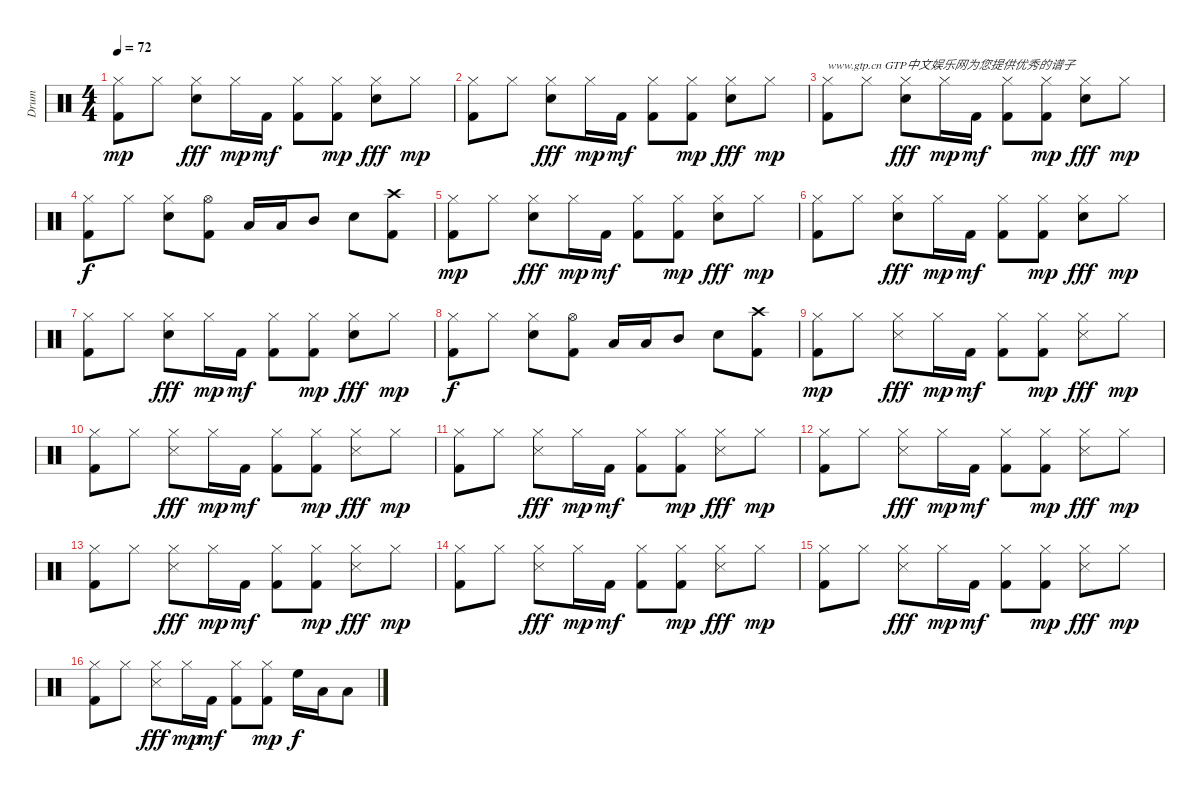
\track ("Drum" "Drum") {instrument percussion}
\staff {score}
\articulation defaults
\ts (4 4)
\tempo 72
\clef neutral
\ks c
("Hi-Hat (closed)" "Kick (hit) 2").8{dy mp} "Hi-Hat (closed)".8 ("Hi-Hat (closed)" "Snare (hit) 2").8{dy fff} "Hi-Hat (closed)".16{dy mp} "Kick (hit) 2".16{dy mf} ("Hi-Hat (closed)" "Kick (hit) 2").8 ("Hi-Hat (closed)" "Kick (hit) 2").8{dy mp} ("Hi-Hat (closed)" "Snare (hit) 2").8{dy fff} "Hi-Hat (closed)".8{dy mp} |
("Hi-Hat (closed)" "Kick (hit) 2").8 "Hi-Hat (closed)".8 ("Hi-Hat (closed)" "Snare (hit) 2").8{dy fff} "Hi-Hat (closed)".16{dy mp} "Kick (hit) 2".16{dy mf} ("Hi-Hat (closed)" "Kick (hit) 2").8 ("Hi-Hat (closed)" "Kick (hit) 2").8{dy mp} ("Hi-Hat (closed)" "Snare (hit) 2").8{dy fff} "Hi-Hat (closed)".8{dy mp} |
("Hi-Hat (closed)" "Kick (hit) 2").8{txt "www.gtp.cn GTP中文娱乐网为您提供优秀的谱子"} "Hi-Hat (closed)".8 ("Hi-Hat (closed)" "Snare (hit) 2").8{dy fff} "Hi-Hat (closed)".16{dy mp} "Kick (hit) 2".16{dy mf} ("Hi-Hat (closed)" "Kick (hit) 2").8 ("Hi-Hat (closed)" "Kick (hit) 2").8{dy mp} ("Hi-Hat (closed)" "Snare (hit) 2").8{dy fff} "Hi-Hat (closed)".8{dy mp} |
("Hi-Hat (closed)" "Kick (hit) 2").8{dy f} "Hi-Hat (closed)".8 ("Hi-Hat (closed)" "Snare (hit) 2").8 ("Hi-Hat (open)" "Kick (hit) 2").8 "Low Tom (hit)".16 "Low Tom (hit)".16 "Mid Tom (hit)".8 "Snare (hit) 2".8 ("Crash high (hit)" "Kick (hit) 2").8 |
("Hi-Hat (closed)" "Kick (hit) 2").8{dy mp} "Hi-Hat (closed)".8 ("Hi-Hat (closed)" "Snare (hit) 2").8{dy fff} "Hi-Hat (closed)".16{dy mp} "Kick (hit) 2".16{dy mf} ("Hi-Hat (closed)" "Kick (hit) 2").8 ("Hi-Hat (closed)" "Kick (hit) 2").8{dy mp} ("Hi-Hat (closed)" "Snare (hit) 2").8{dy fff} "Hi-Hat (closed)".8{dy mp} |
("Hi-Hat (closed)" "Kick (hit) 2").8 "Hi-Hat (closed)".8 ("Hi-Hat (closed)" "Snare (hit) 2").8{dy fff} "Hi-Hat (closed)".16{dy mp} "Kick (hit) 2".16{dy mf} ("Hi-Hat (closed)" "Kick (hit) 2").8 ("Hi-Hat (closed)" "Kick (hit) 2").8{dy mp} ("Hi-Hat (closed)" "Snare (hit) 2").8{dy fff} "Hi-Hat (closed)".8{dy mp} |
("Hi-Hat (closed)" "Kick (hit) 2").8 "Hi-Hat (closed)".8 ("Hi-Hat (closed)" "Snare (hit) 2").8{dy fff} "Hi-Hat (closed)".16{dy mp} "Kick (hit) 2".16{dy mf} ("Hi-Hat (closed)" "Kick (hit) 2").8 ("Hi-Hat (closed)" "Kick (hit) 2").8{dy mp} ("Hi-Hat (closed)" "Snare (hit) 2").8{dy fff} "Hi-Hat (closed)".8{dy mp} |
("Hi-Hat (closed)" "Kick (hit) 2").8{dy f} "Hi-Hat (closed)".8 ("Hi-Hat (closed)" "Snare (hit) 2").8 ("Hi-Hat (open)" "Kick (hit) 2").8 "Low Tom (hit)".16 "Low Tom (hit)".16 "Mid Tom (hit)".8 "Snare (hit) 2".8 ("Crash high (hit)" "Kick (hit) 2").8 |
("Hi-Hat (closed)" "Kick (hit) 2").8{dy mp} "Hi-Hat (closed)".8 ("Hi-Hat (closed)" "Snare (side stick) 3").8{dy fff} "Hi-Hat (closed)".16{dy mp} "Kick (hit) 2".16{dy mf} ("Hi-Hat (closed)" "Kick (hit) 2").8 ("Hi-Hat (closed)" "Kick (hit) 2").8{dy mp} ("Hi-Hat (closed)" "Snare (side stick) 3").8{dy fff} "Hi-Hat (closed)".8{dy mp} |
("Hi-Hat (closed)" "Kick (hit) 2").8 "Hi-Hat (closed)".8 ("Hi-Hat (closed)" "Snare (side stick) 3").8{dy fff} "Hi-Hat (closed)".16{dy mp} "Kick (hit) 2".16{dy mf} ("Hi-Hat (closed)" "Kick (hit) 2").8 ("Hi-Hat (closed)" "Kick (hit) 2").8{dy mp} ("Hi-Hat (closed)" "Snare (side stick) 3").8{dy fff} "Hi-Hat (closed)".8{dy mp} |
("Hi-Hat (closed)" "Kick (hit) 2").8 "Hi-Hat (closed)".8 ("Hi-Hat (closed)" "Snare (side stick) 3").8{dy fff} "Hi-Hat (closed)".16{dy mp} "Kick (hit) 2".16{dy mf} ("Hi-Hat (closed)" "Kick (hit) 2").8 ("Hi-Hat (closed)" "Kick (hit) 2").8{dy mp} ("Hi-Hat (closed)" "Snare (side stick) 3").8{dy fff} "Hi-Hat (closed)".8{dy mp} |
("Hi-Hat (closed)" "Kick (hit) 2").8 "Hi-Hat (closed)".8 ("Hi-Hat (closed)" "Snare (side stick) 3").8{dy fff} "Hi-Hat (closed)".16{dy mp} "Kick (hit) 2".16{dy mf} ("Hi-Hat (closed)" "Kick (hit) 2").8 ("Hi-Hat (closed)" "Kick (hit) 2").8{dy mp} ("Hi-Hat (closed)" "Snare (side stick) 3").8{dy fff} "Hi-Hat (closed)".8{dy mp} |
("Hi-Hat (closed)" "Kick (hit) 2").8 "Hi-Hat (closed)".8 ("Hi-Hat (closed)" "Snare (side stick) 3").8{dy fff} "Hi-Hat (closed)".16{dy mp} "Kick (hit) 2".16{dy mf} ("Hi-Hat (closed)" "Kick (hit) 2").8 ("Hi-Hat (closed)" "Kick (hit) 2").8{dy mp} ("Hi-Hat (closed)" "Snare (side stick) 3").8{dy fff} "Hi-Hat (closed)".8{dy mp} |
("Hi-Hat (closed)" "Kick (hit) 2").8 "Hi-Hat (closed)".8 ("Hi-Hat (closed)" "Snare (side stick) 3").8{dy fff} "Hi-Hat (closed)".16{dy mp} "Kick (hit) 2".16{dy mf} ("Hi-Hat (closed)" "Kick (hit) 2").8 ("Hi-Hat (closed)" "Kick (hit) 2").8{dy mp} ("Hi-Hat (closed)" "Snare (side stick) 3").8{dy fff} "Hi-Hat (closed)".8{dy mp} |
("Hi-Hat (closed)" "Kick (hit) 2").8 "Hi-Hat (closed)".8 ("Hi-Hat (closed)" "Snare (side stick) 3").8{dy fff} "Hi-Hat (closed)".16{dy mp} "Kick (hit) 2".16{dy mf} ("Hi-Hat (closed)" "Kick (hit) 2").8 ("Hi-Hat (closed)" "Kick (hit) 2").8{dy mp} ("Hi-Hat (closed)" "Snare (side stick) 3").8{dy fff} "Hi-Hat (closed)".8{dy mp} |
("Hi-Hat (closed)" "Kick (hit) 2").8 "Hi-Hat (closed)".8 ("Hi-Hat (closed)" "Snare (side stick) 3").8{dy fff} "Hi-Hat (closed)".16{dy mp} "Kick (hit) 2".16{dy mf} ("Hi-Hat (closed)" "Kick (hit) 2").8 ("Hi-Hat (closed)" "Kick (hit) 2").8{dy mp} "High Floor Tom (hit)".16{dy f} "Low Floor Tom (hit)".16 "Low Floor Tom (hit)".8
